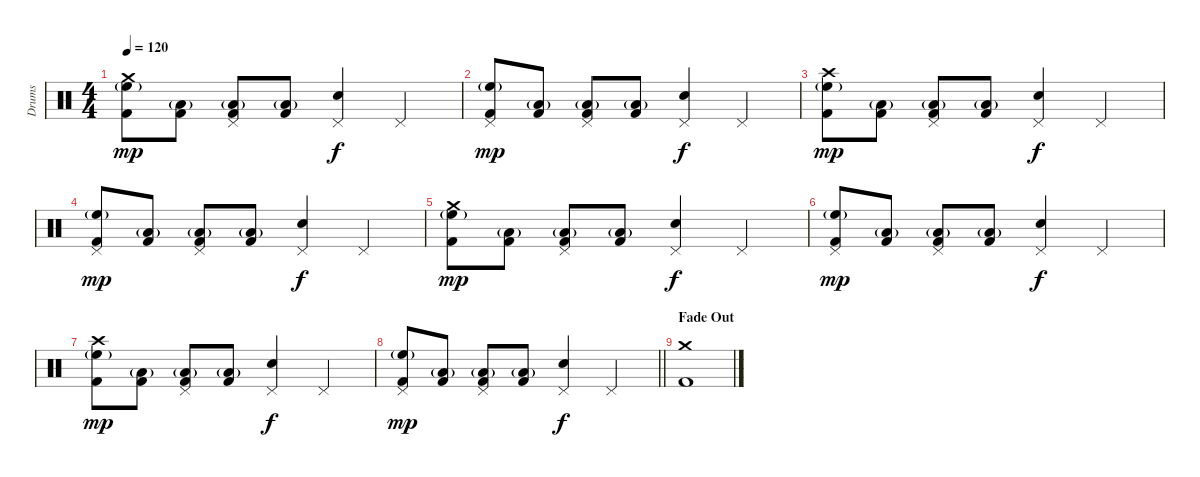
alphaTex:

\track ("Drums" "Drums") {instrument percussion}
\staff {score}
\articulation defaults
\ts (4 4)
\tempo 120
\clef neutral
\ks c
("Crash medium (hit)" "High Floor Tom (hit)"{g} "Kick (hit) 2").8{dy mp} ("Low Tom (hit)"{g} "Kick (hit) 2").8 ("Pedal Hi-Hat (hit)" "Low Tom (hit)"{g} "Kick (hit) 2").8 ("Low Tom (hit)"{g} "Kick (hit) 2").8 ("Pedal Hi-Hat (hit)" "Electric Snare (hit)").4{dy f} "Pedal Hi-Hat (hit)".4 |
("Pedal Hi-Hat (hit)" "High Floor Tom (hit)"{g} "Kick (hit) 2").8{dy mp} ("Low Tom (hit)"{g} "Kick (hit) 2").8 ("Pedal Hi-Hat (hit)" "Low Tom (hit)"{g} "Kick (hit) 2").8 ("Low Tom (hit)"{g} "Kick (hit) 2").8 ("Pedal Hi-Hat (hit)" "Electric Snare (hit)").4{dy f} "Pedal Hi-Hat (hit)".4 |
("Crash high (hit)" "High Floor Tom (hit)"{g} "Kick (hit) 2").8{dy mp} ("Low Tom (hit)"{g} "Kick (hit) 2").8 ("Pedal Hi-Hat (hit)" "Low Tom (hit)"{g} "Kick (hit) 2").8 ("Low Tom (hit)"{g} "Kick (hit) 2").8 ("Pedal Hi-Hat (hit)" "Electric Snare (hit)").4{dy f} "Pedal Hi-Hat (hit)".4 |
("Pedal Hi-Hat (hit)" "High Floor Tom (hit)"{g} "Kick (hit) 2").8{dy mp} ("Low Tom (hit)"{g} "Kick (hit) 2").8 ("Pedal Hi-Hat (hit)" "Low Tom (hit)"{g} "Kick (hit) 2").8 ("Low Tom (hit)"{g} "Kick (hit) 2").8 ("Pedal Hi-Hat (hit)" "Electric Snare (hit)").4{dy f} "Pedal Hi-Hat (hit)".4 |
("Crash medium (hit)" "High Floor Tom (hit)"{g} "Kick (hit) 2").8{dy mp} ("Low Tom (hit)"{g} "Kick (hit) 2").8 ("Pedal Hi-Hat (hit)" "Low Tom (hit)"{g} "Kick (hit) 2").8 ("Low Tom (hit)"{g} "Kick (hit) 2").8 ("Pedal Hi-Hat (hit)" "Electric Snare (hit)").4{dy f} "Pedal Hi-Hat (hit)".4 |
("Pedal Hi-Hat (hit)" "High Floor Tom (hit)"{g} "Kick (hit) 2").8{dy mp} ("Low Tom (hit)"{g} "Kick (hit) 2").8 ("Pedal Hi-Hat (hit)" "Low Tom (hit)"{g} "Kick (hit) 2").8 ("Low Tom (hit)"{g} "Kick (hit) 2").8 ("Pedal Hi-Hat (hit)" "Electric Snare (hit)").4{dy f} "Pedal Hi-Hat (hit)".4 |
("Crash high (hit)" "High Floor Tom (hit)"{g} "Kick (hit) 2").8{dy mp} ("Low Tom (hit)"{g} "Kick (hit) 2").8 ("Pedal Hi-Hat (hit)" "Low Tom (hit)"{g} "Kick (hit) 2").8 ("Low Tom (hit)"{g} "Kick (hit) 2").8 ("Pedal Hi-Hat (hit)" "Electric Snare (hit)").4{dy f} "Pedal Hi-Hat (hit)".4 |
\barLineRight lightlight
("Pedal Hi-Hat (hit)" "High Floor Tom (hit)"{g} "Kick (hit) 2").8{dy mp} ("Low Tom (hit)"{g} "Kick (hit) 2").8 ("Pedal Hi-Hat (hit)" "Low Tom (hit)"{g} "Kick (hit) 2").8 ("Low Tom (hit)"{g} "Kick (hit) 2").8 ("Pedal Hi-Hat (hit)" "Electric Snare (hit)").4{dy f} "Pedal Hi-Hat (hit)".4 |
\section ("" "Fade Out")
("Crash medium (hit)" "Kick (hit) 2").1
